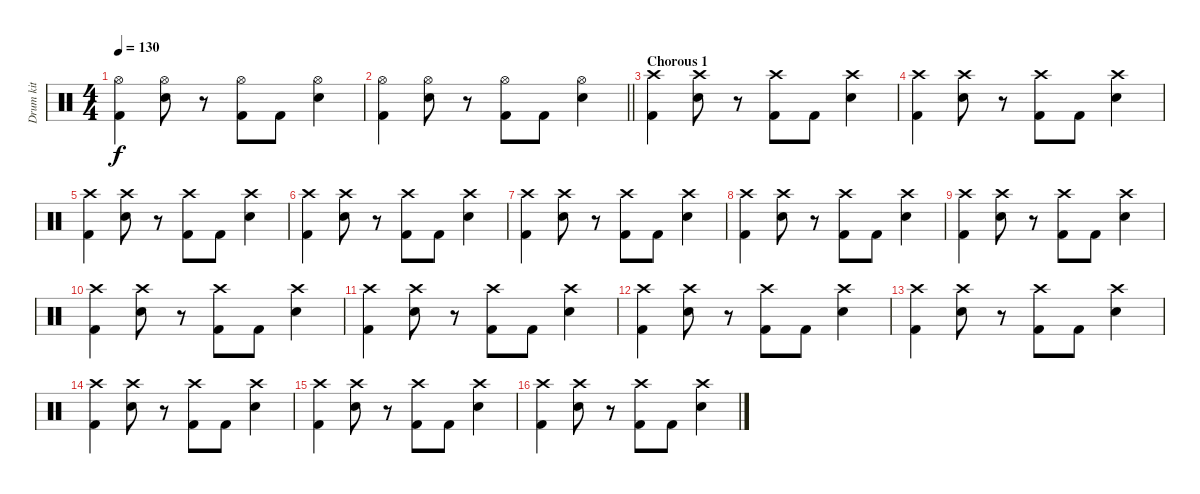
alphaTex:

\track ("Drum kit" "Drum kit") {instrument percussion}
\staff {score}
\articulation defaults
\ts (4 4)
\tempo 130
\clef neutral
\ks c
("Hi-Hat (open)" "Kick (hit) 2").4{dy f} ("Hi-Hat (open)" "Electric Snare (hit)").8 r.8 ("Hi-Hat (open)" "Kick (hit) 2").8 "Kick (hit) 2".8 ("Hi-Hat (open)" "Electric Snare (hit)").4 |
\barLineRight lightlight
("Hi-Hat (open)" "Kick (hit) 2").4 ("Hi-Hat (open)" "Electric Snare (hit)").8 r.8 ("Hi-Hat (open)" "Kick (hit) 2").8 "Kick (hit) 2".8 ("Hi-Hat (open)" "Electric Snare (hit)").4 |
\section ("" "Chorous 1")
("Crash high (hit)" "Kick (hit) 2").4 ("Crash high (hit)" "Electric Snare (hit)").8 r.8 ("Crash high (hit)" "Kick (hit) 2").8 "Kick (hit) 2".8 ("Crash high (hit)" "Electric Snare (hit)").4 |
("Crash high (hit)" "Kick (hit) 2").4 ("Crash high (hit)" "Electric Snare (hit)").8 r.8 ("Crash high (hit)" "Kick (hit) 2").8 "Kick (hit) 2".8 ("Crash high (hit)" "Electric Snare (hit)").4 |
("Crash high (hit)" "Kick (hit) 2").4 ("Crash high (hit)" "Electric Snare (hit)").8 r.8 ("Crash high (hit)" "Kick (hit) 2").8 "Kick (hit) 2".8 ("Crash high (hit)" "Electric Snare (hit)").4 |
("Crash high (hit)" "Kick (hit) 2").4 ("Crash high (hit)" "Electric Snare (hit)").8 r.8 ("Crash high (hit)" "Kick (hit) 2").8 "Kick (hit) 2".8 ("Crash high (hit)" "Electric Snare (hit)").4 |
("Crash high (hit)" "Kick (hit) 2").4 ("Crash high (hit)" "Electric Snare (hit)").8 r.8 ("Crash high (hit)" "Kick (hit) 2").8 "Kick (hit) 2".8 ("Crash high (hit)" "Electric Snare (hit)").4 |
("Crash high (hit)" "Kick (hit) 2").4 ("Crash high (hit)" "Electric Snare (hit)").8 r.8 ("Crash high (hit)" "Kick (hit) 2").8 "Kick (hit) 2".8 ("Crash high (hit)" "Electric Snare (hit)").4 |
("Crash high (hit)" "Kick (hit) 2").4 ("Crash high (hit)" "Electric Snare (hit)").8 r.8 ("Crash high (hit)" "Kick (hit) 2").8 "Kick (hit) 2".8 ("Crash high (hit)" "Electric Snare (hit)").4 |
("Crash high (hit)" "Kick (hit) 2").4 ("Crash high (hit)" "Electric Snare (hit)").8 r.8 ("Crash high (hit)" "Kick (hit) 2").8 "Kick (hit) 2".8 ("Crash high (hit)" "Electric Snare (hit)").4 |
("Crash high (hit)" "Kick (hit) 2").4 ("Crash high (hit)" "Electric Snare (hit)").8 r.8 ("Crash high (hit)" "Kick (hit) 2").8 "Kick (hit) 2".8 ("Crash high (hit)" "Electric Snare (hit)").4 |
("Crash high (hit)" "Kick (hit) 2").4 ("Crash high (hit)" "Electric Snare (hit)").8 r.8 ("Crash high (hit)" "Kick (hit) 2").8 "Kick (hit) 2".8 ("Crash high (hit)" "Electric Snare (hit)").4 |
("Crash high (hit)" "Kick (hit) 2").4 ("Crash high (hit)" "Electric Snare (hit)").8 r.8 ("Crash high (hit)" "Kick (hit) 2").8 "Kick (hit) 2".8 ("Crash high (hit)" "Electric Snare (hit)").4 |
("Crash high (hit)" "Kick (hit) 2").4 ("Crash high (hit)" "Electric Snare (hit)").8 r.8 ("Crash high (hit)" "Kick (hit) 2").8 "Kick (hit) 2".8 ("Crash high (hit)" "Electric Snare (hit)").4 |
("Crash high (hit)" "Kick (hit) 2").4 ("Crash high (hit)" "Electric Snare (hit)").8 r.8 ("Crash high (hit)" "Kick (hit) 2").8 "Kick (hit) 2".8 ("Crash high (hit)" "Electric Snare (hit)").4 |
("Crash high (hit)" "Kick (hit) 2").4 ("Crash high (hit)" "Electric Snare (hit)").8 r.8 ("Crash high (hit)" "Kick (hit) 2").8 "Kick (hit) 2".8 ("Crash high (hit)" "Electric Snare (hit)").4
